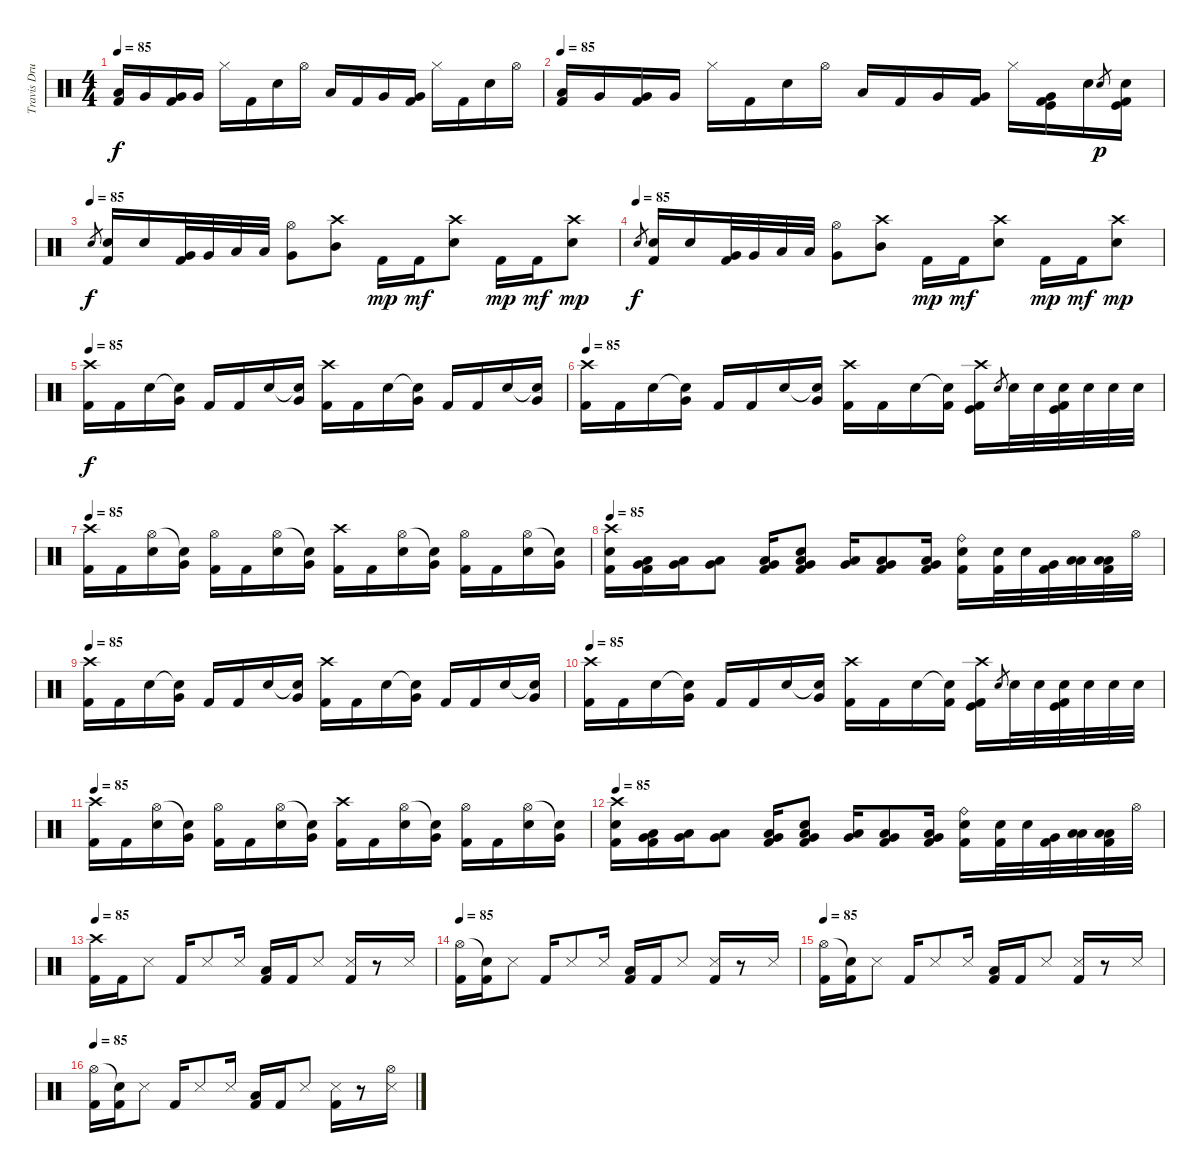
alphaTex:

\track ("Travis Drums" "Travis Dru") {instrument percussion}
\staff {score}
\articulation defaults
\ts (4 4)
\tempo 85
\clef neutral
\ks c
("Low Tom (hit)" "Kick (hit) 2").16{dy f} "Very Low Tom (hit)".16 ("Very Low Tom (hit)" "Kick (hit) 2").16 "Very Low Tom (hit)".16 "Hi-Hat (closed)".16 "Kick (hit) 2".16 "Electric Snare (hit)".16 "Hi-Hat (open)".16 "Low Tom (hit)".16 "Kick (hit) 2".16 "Very Low Tom (hit)".16 ("Very Low Tom (hit)" "Kick (hit) 2").16 "Hi-Hat (closed)".16 "Kick (hit) 2".16 "Electric Snare (hit)".16 "Hi-Hat (open)".16 |
\tempo 85
("Low Tom (hit)" "Kick (hit) 2").16 "Very Low Tom (hit)".16 ("Very Low Tom (hit)" "Kick (hit) 2").16 "Very Low Tom (hit)".16 "Hi-Hat (closed)".16 "Kick (hit) 2".16 "Electric Snare (hit)".16 "Hi-Hat (open)".16 "Low Tom (hit)".16 "Kick (hit) 2".16 "Very Low Tom (hit)".16 ("Very Low Tom (hit)" "Kick (hit) 2").16 "Hi-Hat (closed)".16 ("Very Low Tom (hit)" "Kick (hit)" "Kick (hit) 2").16 "Electric Snare (hit)".16 "Snare (hit) 2".8{gr dy p} ("Electric Snare (hit)" "Kick (hit)" "Kick (hit) 2").16 |
\tempo (85)
"Snare (hit) 2".8{gr dy f} ("Electric Snare (hit)" "Kick (hit) 2").16 "Snare (hit) 2".16 ("Very Low Tom (hit)" "Kick (hit) 2").32 "Very Low Tom (hit)".32 "Low Floor Tom (hit)".32 "Low Floor Tom (hit)".32 ("Hi-Hat (open)" "Very Low Tom (hit)").8 ("Crash high (hit)" "Mid Tom (hit)").8 "Kick (hit) 2".16{dy mp} "Kick (hit) 2".16{dy mf} ("Crash high (hit)" "Electric Snare (hit)").8 "Kick (hit) 2".16{dy mp} "Kick (hit) 2".16{dy mf} ("Crash high (hit)" "Electric Snare (hit)").8{dy mp} |
\tempo (85)
"Snare (hit) 2".8{gr dy f} ("Electric Snare (hit)" "Kick (hit) 2").16 "Snare (hit) 2".16 ("Very Low Tom (hit)" "Kick (hit) 2").32 "Very Low Tom (hit)".32 "Low Floor Tom (hit)".32 "Low Floor Tom (hit)".32 ("Hi-Hat (open)" "Very Low Tom (hit)").8 ("Crash high (hit)" "Mid Tom (hit)").8 "Kick (hit) 2".16{dy mp} "Kick (hit) 2".16{dy mf} ("Crash high (hit)" "Electric Snare (hit)").8 "Kick (hit) 2".16{dy mp} "Kick (hit) 2".16{dy mf} ("Crash high (hit)" "Electric Snare (hit)").8{dy mp} |
\tempo 85
("Crash high (hit)" "Kick (hit) 2").16{dy f} "Kick (hit) 2".16 "Electric Snare (hit)".16 ("Snare (hit)"{t} "Very Low Tom (hit)").16 "Kick (hit) 2".16 "Kick (hit) 2".16 "Electric Snare (hit)".16 ("Snare (hit)"{t} "Very Low Tom (hit)").16 ("Crash high (hit)" "Kick (hit) 2").16 "Kick (hit) 2".16 "Electric Snare (hit)".16 ("Snare (hit)"{t} "Very Low Tom (hit)").16 "Kick (hit) 2".16 "Kick (hit) 2".16 "Electric Snare (hit)".16 ("Snare (hit)"{t} "Very Low Tom (hit)").16 |
\tempo 85
("Crash high (hit)" "Kick (hit) 2").16 "Kick (hit) 2".16 "Electric Snare (hit)".16 ("Snare (hit)"{t} "Very Low Tom (hit)").16 "Kick (hit) 2".16 "Kick (hit) 2".16 "Electric Snare (hit)".16 ("Snare (hit)"{t} "Very Low Tom (hit)").16 ("Crash high (hit)" "Kick (hit) 2").16 "Kick (hit) 2".16 "Electric Snare (hit)".16 ("Snare (hit)"{t} "Kick (hit) 2").16 ("Crash high (hit)" "Kick (hit)" "Kick (hit) 2").16 "Snare (hit) 2".8{gr} "Electric Snare (hit)".32 "Electric Snare (hit)".32 ("Electric Snare (hit)" "Kick (hit)" "Kick (hit) 2").32 "Electric Snare (hit)".32 "Electric Snare (hit)".32 "Electric Snare (hit)".32 |
\tempo 85
("Crash high (hit)" "Kick (hit) 2").16 "Kick (hit) 2".16 ("Hi-Hat (open)" "Electric Snare (hit)").16 ("Snare (hit)"{t} "Very Low Tom (hit)").16 ("Hi-Hat (open)" "Kick (hit) 2").16 "Kick (hit) 2".16 ("Hi-Hat (open)" "Electric Snare (hit)").16 ("Snare (hit)"{t} "Very Low Tom (hit)").16 ("Crash high (hit)" "Kick (hit) 2").16 "Kick (hit) 2".16 ("Hi-Hat (open)" "Electric Snare (hit)").16 ("Snare (hit)"{t} "Very Low Tom (hit)").16 ("Hi-Hat (open)" "Kick (hit) 2").16 "Kick (hit) 2".16 ("Hi-Hat (open)" "Electric Snare (hit)").16 ("Snare (hit)"{t} "Very Low Tom (hit)").16 |
\tempo 85
("Crash high (hit)" "Electric Snare (hit)" "Kick (hit) 2").16 ("Very Low Tom (hit)" "Low Floor Tom (hit)" "Kick (hit) 2").16 ("Very Low Tom (hit)" "Low Floor Tom (hit)").16 ("Very Low Tom (hit)" "Low Floor Tom (hit)").8 ("Very Low Tom (hit)" "Low Floor Tom (hit)" "Kick (hit) 2").16 ("Electric Snare (hit)" "Very Low Tom (hit)" "Low Floor Tom (hit)" "Kick (hit) 2").8 ("Very Low Tom (hit)" "Low Floor Tom (hit)").16 ("Very Low Tom (hit)" "Low Floor Tom (hit)" "Kick (hit) 2").8 ("Very Low Tom (hit)" "Low Floor Tom (hit)" "Kick (hit) 2").16 ("Ride (bell)" "Snare (hit) 2" "Kick (hit) 2").16 ("Electric Snare (hit)" "Kick (hit) 2").32 "Electric Snare (hit)".32 ("Very Low Tom (hit)" "Kick (hit) 2").32 ("Low Floor Tom (hit)" "Low Floor Tom (hit)").32 ("Low Floor Tom (hit)" "Low Floor Tom (hit)" "Kick (hit) 2").32 "Hi-Hat (open)".32 |
\tempo 85
("Crash high (hit)" "Kick (hit) 2").16 "Kick (hit) 2".16 "Electric Snare (hit)".16 ("Snare (hit)"{t} "Very Low Tom (hit)").16 "Kick (hit) 2".16 "Kick (hit) 2".16 "Electric Snare (hit)".16 ("Snare (hit)"{t} "Very Low Tom (hit)").16 ("Crash high (hit)" "Kick (hit) 2").16 "Kick (hit) 2".16 "Electric Snare (hit)".16 ("Snare (hit)"{t} "Very Low Tom (hit)").16 "Kick (hit) 2".16 "Kick (hit) 2".16 "Electric Snare (hit)".16 ("Snare (hit)"{t} "Very Low Tom (hit)").16 |
\tempo 85
("Crash high (hit)" "Kick (hit) 2").16 "Kick (hit) 2".16 "Electric Snare (hit)".16 ("Snare (hit)"{t} "Very Low Tom (hit)").16 "Kick (hit) 2".16 "Kick (hit) 2".16 "Electric Snare (hit)".16 ("Snare (hit)"{t} "Very Low Tom (hit)").16 ("Crash high (hit)" "Kick (hit) 2").16 "Kick (hit) 2".16 "Electric Snare (hit)".16 ("Snare (hit)"{t} "Kick (hit) 2").16 ("Crash high (hit)" "Kick (hit)" "Kick (hit) 2").16 "Snare (hit) 2".8{gr} "Electric Snare (hit)".32 "Electric Snare (hit)".32 ("Electric Snare (hit)" "Kick (hit)" "Kick (hit) 2").32 "Electric Snare (hit)".32 "Electric Snare (hit)".32 "Electric Snare (hit)".32 |
\tempo 85
("Crash high (hit)" "Kick (hit) 2").16 "Kick (hit) 2".16 ("Hi-Hat (open)" "Electric Snare (hit)").16 ("Snare (hit)"{t} "Very Low Tom (hit)").16 ("Hi-Hat (open)" "Kick (hit) 2").16 "Kick (hit) 2".16 ("Hi-Hat (open)" "Electric Snare (hit)").16 ("Snare (hit)"{t} "Very Low Tom (hit)").16 ("Crash high (hit)" "Kick (hit) 2").16 "Kick (hit) 2".16 ("Hi-Hat (open)" "Electric Snare (hit)").16 ("Snare (hit)"{t} "Very Low Tom (hit)").16 ("Hi-Hat (open)" "Kick (hit) 2").16 "Kick (hit) 2".16 ("Hi-Hat (open)" "Electric Snare (hit)").16 ("Snare (hit)"{t} "Very Low Tom (hit)").16 |
\tempo 85
("Crash high (hit)" "Electric Snare (hit)" "Kick (hit) 2").16 ("Very Low Tom (hit)" "Low Floor Tom (hit)" "Kick (hit) 2").16 ("Very Low Tom (hit)" "Low Floor Tom (hit)").16 ("Very Low Tom (hit)" "Low Floor Tom (hit)").8 ("Very Low Tom (hit)" "Low Floor Tom (hit)" "Kick (hit) 2").16 ("Electric Snare (hit)" "Very Low Tom (hit)" "Low Floor Tom (hit)" "Kick (hit) 2").8 ("Very Low Tom (hit)" "Low Floor Tom (hit)").16 ("Very Low Tom (hit)" "Low Floor Tom (hit)" "Kick (hit) 2").8 ("Very Low Tom (hit)" "Low Floor Tom (hit)" "Kick (hit) 2").16 ("Ride (bell)" "Snare (hit) 2" "Kick (hit) 2").16 ("Electric Snare (hit)" "Kick (hit) 2").32 "Electric Snare (hit)".32 ("Very Low Tom (hit)" "Kick (hit) 2").32 ("Low Floor Tom (hit)" "Low Floor Tom (hit)").32 ("Low Floor Tom (hit)" "Low Floor Tom (hit)" "Kick (hit) 2").32 "Hi-Hat (open)".32 |
\tempo 85
("Crash high (hit)" "Kick (hit) 2").16 "Kick (hit) 2".16 "Snare (side stick) 3".8 "Kick (hit) 2".16 "Snare (side stick) 3".8 "Snare (side stick) 3".16 ("Low Floor Tom (hit)" "Kick (hit) 2").16 "Kick (hit) 2".16 "Snare (side stick) 3".8 ("Snare (side stick) 3" "Kick (hit) 2").16 r.8 "Snare (side stick) 3".16 |
\tempo 85
("Hi-Hat (open)" "Kick (hit) 2").16 ("Snare (hit)"{t} "Kick (hit) 2").16 "Snare (side stick) 3".8 "Kick (hit) 2".16 "Snare (side stick) 3".8 "Snare (side stick) 3".16 ("Low Floor Tom (hit)" "Kick (hit) 2").16 "Kick (hit) 2".16 "Snare (side stick) 3".8 ("Snare (side stick) 3" "Kick (hit) 2").16 r.8 "Snare (side stick) 3".16 |
\tempo 85
("Hi-Hat (open)" "Kick (hit) 2").16 ("Snare (hit)"{t} "Kick (hit) 2").16 "Snare (side stick) 3".8 "Kick (hit) 2".16 "Snare (side stick) 3".8 "Snare (side stick) 3".16 ("Low Floor Tom (hit)" "Kick (hit) 2").16 "Kick (hit) 2".16 "Snare (side stick) 3".8 ("Snare (side stick) 3" "Kick (hit) 2").16 r.8 "Snare (side stick) 3".16 |
\tempo 85
("Hi-Hat (open)" "Kick (hit) 2").16 ("Snare (hit)"{t} "Kick (hit) 2").16 "Snare (side stick) 3".8 "Kick (hit) 2".16 "Snare (side stick) 3".8 "Snare (side stick) 3".16 ("Low Floor Tom (hit)" "Kick (hit) 2").16 "Kick (hit) 2".16 "Snare (side stick) 3".8 ("Snare (side stick) 3" "Kick (hit) 2").16 r.8 ("Hi-Hat (open)" "Snare (side stick) 3").16
